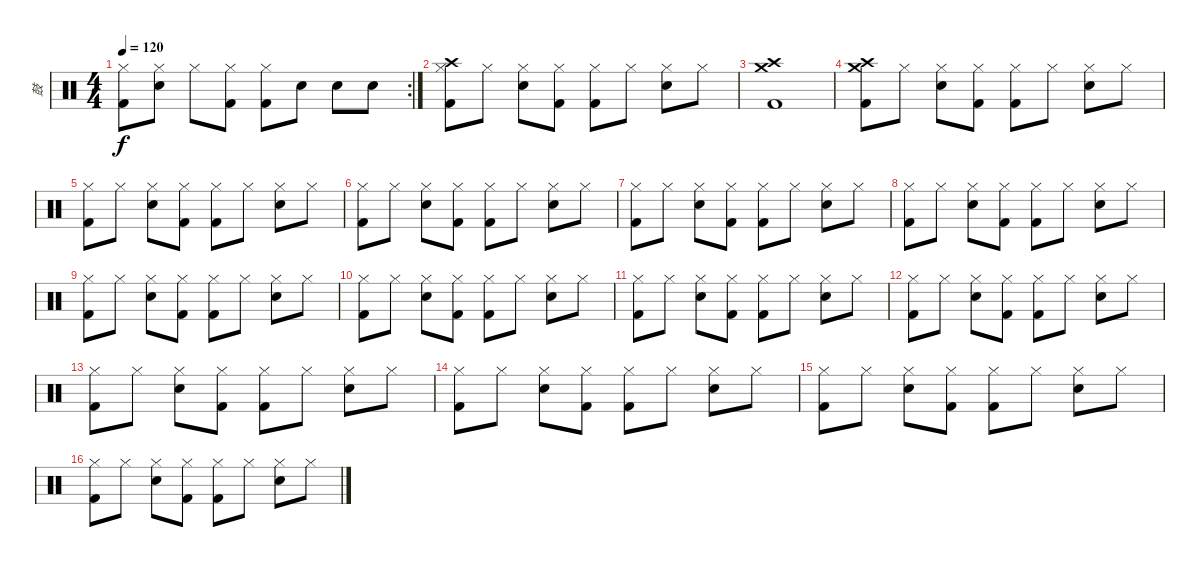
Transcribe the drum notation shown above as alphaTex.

\track ("鼓" "鼓") {instrument percussion}
\staff {score}
\articulation defaults
\rc 2
\ts (4 4)
\tempo 120
\clef neutral
\ks c
("Hi-Hat (closed)" "Kick (hit) 2").8{dy f} ("Hi-Hat (closed)" "Snare (hit) 2").8 "Hi-Hat (closed)".8 ("Hi-Hat (closed)" "Kick (hit) 2").8 ("Hi-Hat (closed)" "Kick (hit) 2").8 "Snare (hit) 2".8 "Snare (hit) 2".8 "Snare (hit) 2".8 |
("Hi-Hat (closed)" "Crash high (hit)" "Kick (hit) 2").8 "Hi-Hat (closed)".8 ("Hi-Hat (closed)" "Snare (hit) 2").8 ("Hi-Hat (closed)" "Kick (hit) 2").8 ("Hi-Hat (closed)" "Kick (hit) 2").8 "Hi-Hat (closed)".8 ("Hi-Hat (closed)" "Snare (hit) 2").8 "Hi-Hat (closed)".8 |
("Crash high (hit)" "Crash medium (hit)" "Kick (hit) 2").1 |
("Crash high (hit)" "Crash medium (hit)" "Kick (hit) 2").8 "Hi-Hat (closed)".8 ("Hi-Hat (closed)" "Snare (hit) 2").8 ("Hi-Hat (closed)" "Kick (hit) 2").8 ("Hi-Hat (closed)" "Kick (hit) 2").8 "Hi-Hat (closed)".8 ("Hi-Hat (closed)" "Snare (hit) 2").8 "Hi-Hat (closed)".8 |
("Hi-Hat (closed)" "Kick (hit) 2").8 "Hi-Hat (closed)".8 ("Hi-Hat (closed)" "Snare (hit) 2").8 ("Hi-Hat (closed)" "Kick (hit) 2").8 ("Hi-Hat (closed)" "Kick (hit) 2").8 "Hi-Hat (closed)".8 ("Hi-Hat (closed)" "Snare (hit) 2").8 "Hi-Hat (closed)".8 |
("Hi-Hat (closed)" "Kick (hit) 2").8 "Hi-Hat (closed)".8 ("Hi-Hat (closed)" "Snare (hit) 2").8 ("Hi-Hat (closed)" "Kick (hit) 2").8 ("Hi-Hat (closed)" "Kick (hit) 2").8 "Hi-Hat (closed)".8 ("Hi-Hat (closed)" "Snare (hit) 2").8 "Hi-Hat (closed)".8 |
("Hi-Hat (closed)" "Kick (hit) 2").8 "Hi-Hat (closed)".8 ("Hi-Hat (closed)" "Snare (hit) 2").8 ("Hi-Hat (closed)" "Kick (hit) 2").8 ("Hi-Hat (closed)" "Kick (hit) 2").8 "Hi-Hat (closed)".8 ("Hi-Hat (closed)" "Snare (hit) 2").8 "Hi-Hat (closed)".8 |
("Hi-Hat (closed)" "Kick (hit) 2").8 "Hi-Hat (closed)".8 ("Hi-Hat (closed)" "Snare (hit) 2").8 ("Hi-Hat (closed)" "Kick (hit) 2").8 ("Hi-Hat (closed)" "Kick (hit) 2").8 "Hi-Hat (closed)".8 ("Hi-Hat (closed)" "Snare (hit) 2").8 "Hi-Hat (closed)".8 |
("Hi-Hat (closed)" "Kick (hit) 2").8 "Hi-Hat (closed)".8 ("Hi-Hat (closed)" "Snare (hit) 2").8 ("Hi-Hat (closed)" "Kick (hit) 2").8 ("Hi-Hat (closed)" "Kick (hit) 2").8 "Hi-Hat (closed)".8 ("Hi-Hat (closed)" "Snare (hit) 2").8 "Hi-Hat (closed)".8 |
("Hi-Hat (closed)" "Kick (hit) 2").8 "Hi-Hat (closed)".8 ("Hi-Hat (closed)" "Snare (hit) 2").8 ("Hi-Hat (closed)" "Kick (hit) 2").8 ("Hi-Hat (closed)" "Kick (hit) 2").8 "Hi-Hat (closed)".8 ("Hi-Hat (closed)" "Snare (hit) 2").8 "Hi-Hat (closed)".8 |
("Hi-Hat (closed)" "Kick (hit) 2").8 "Hi-Hat (closed)".8 ("Hi-Hat (closed)" "Snare (hit) 2").8 ("Hi-Hat (closed)" "Kick (hit) 2").8 ("Hi-Hat (closed)" "Kick (hit) 2").8 "Hi-Hat (closed)".8 ("Hi-Hat (closed)" "Snare (hit) 2").8 "Hi-Hat (closed)".8 |
("Hi-Hat (closed)" "Kick (hit) 2").8 "Hi-Hat (closed)".8 ("Hi-Hat (closed)" "Snare (hit) 2").8 ("Hi-Hat (closed)" "Kick (hit) 2").8 ("Hi-Hat (closed)" "Kick (hit) 2").8 "Hi-Hat (closed)".8 ("Hi-Hat (closed)" "Snare (hit) 2").8 "Hi-Hat (closed)".8 |
("Hi-Hat (closed)" "Kick (hit) 2").8 "Hi-Hat (closed)".8 ("Hi-Hat (closed)" "Snare (hit) 2").8 ("Hi-Hat (closed)" "Kick (hit) 2").8 ("Hi-Hat (closed)" "Kick (hit) 2").8 "Hi-Hat (closed)".8 ("Hi-Hat (closed)" "Snare (hit) 2").8 "Hi-Hat (closed)".8 |
("Hi-Hat (closed)" "Kick (hit) 2").8 "Hi-Hat (closed)".8 ("Hi-Hat (closed)" "Snare (hit) 2").8 ("Hi-Hat (closed)" "Kick (hit) 2").8 ("Hi-Hat (closed)" "Kick (hit) 2").8 "Hi-Hat (closed)".8 ("Hi-Hat (closed)" "Snare (hit) 2").8 "Hi-Hat (closed)".8 |
("Hi-Hat (closed)" "Kick (hit) 2").8 "Hi-Hat (closed)".8 ("Hi-Hat (closed)" "Snare (hit) 2").8 ("Hi-Hat (closed)" "Kick (hit) 2").8 ("Hi-Hat (closed)" "Kick (hit) 2").8 "Hi-Hat (closed)".8 ("Hi-Hat (closed)" "Snare (hit) 2").8 "Hi-Hat (closed)".8 |
("Hi-Hat (closed)" "Kick (hit) 2").8 "Hi-Hat (closed)".8 ("Hi-Hat (closed)" "Snare (hit) 2").8 ("Hi-Hat (closed)" "Kick (hit) 2").8 ("Hi-Hat (closed)" "Kick (hit) 2").8 "Hi-Hat (closed)".8 ("Hi-Hat (closed)" "Snare (hit) 2").8 "Hi-Hat (closed)".8
